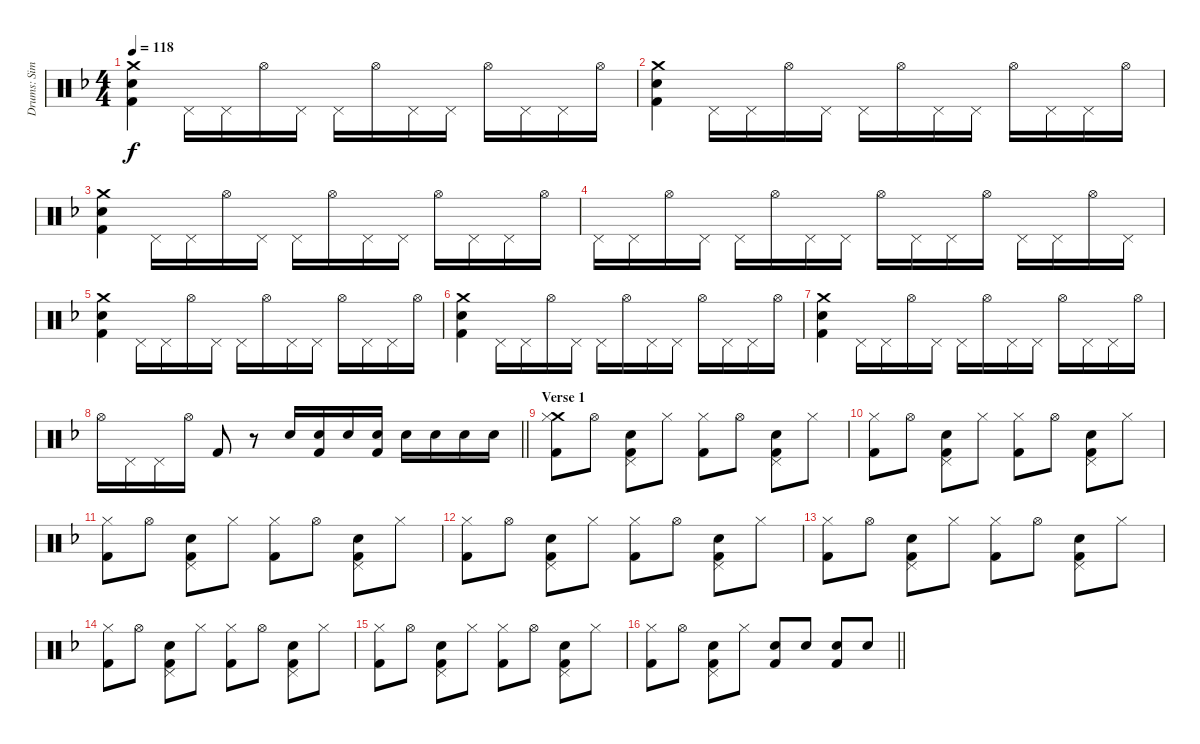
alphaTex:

\track ("Drums: Simon Kirke" "Drums: Sim") {instrument percussion}
\staff {score}
\articulation defaults
\ts (4 4)
\tempo 118
\clef neutral
\ks f
("Crash medium (hit)" "Snare (hit) 2" "Kick (hit) 2").4{dy f} "Pedal Hi-Hat (hit)".16 "Pedal Hi-Hat (hit)".16 "Hi-Hat (open)".16 "Pedal Hi-Hat (hit)".16 "Pedal Hi-Hat (hit)".16 "Hi-Hat (open)".16 "Pedal Hi-Hat (hit)".16 "Pedal Hi-Hat (hit)".16 "Hi-Hat (open)".16 "Pedal Hi-Hat (hit)".16 "Pedal Hi-Hat (hit)".16 "Hi-Hat (open)".16 |
("Crash medium (hit)" "Snare (hit) 2" "Kick (hit) 2").4 "Pedal Hi-Hat (hit)".16 "Pedal Hi-Hat (hit)".16 "Hi-Hat (open)".16 "Pedal Hi-Hat (hit)".16 "Pedal Hi-Hat (hit)".16 "Hi-Hat (open)".16 "Pedal Hi-Hat (hit)".16 "Pedal Hi-Hat (hit)".16 "Hi-Hat (open)".16 "Pedal Hi-Hat (hit)".16 "Pedal Hi-Hat (hit)".16 "Hi-Hat (open)".16 |
("Crash medium (hit)" "Snare (hit) 2" "Kick (hit) 2").4 "Pedal Hi-Hat (hit)".16 "Pedal Hi-Hat (hit)".16 "Hi-Hat (open)".16 "Pedal Hi-Hat (hit)".16 "Pedal Hi-Hat (hit)".16 "Hi-Hat (open)".16 "Pedal Hi-Hat (hit)".16 "Pedal Hi-Hat (hit)".16 "Hi-Hat (open)".16 "Pedal Hi-Hat (hit)".16 "Pedal Hi-Hat (hit)".16 "Hi-Hat (open)".16 |
"Pedal Hi-Hat (hit)".16 "Pedal Hi-Hat (hit)".16 "Hi-Hat (open)".16 "Pedal Hi-Hat (hit)".16 "Pedal Hi-Hat (hit)".16 "Hi-Hat (open)".16 "Pedal Hi-Hat (hit)".16 "Pedal Hi-Hat (hit)".16 "Hi-Hat (open)".16 "Pedal Hi-Hat (hit)".16 "Pedal Hi-Hat (hit)".16 "Hi-Hat (open)".16 "Pedal Hi-Hat (hit)".16 "Pedal Hi-Hat (hit)".16 "Hi-Hat (open)".16 "Pedal Hi-Hat (hit)".16 |
("Crash medium (hit)" "Snare (hit) 2" "Kick (hit) 2").4 "Pedal Hi-Hat (hit)".16 "Pedal Hi-Hat (hit)".16 "Hi-Hat (open)".16 "Pedal Hi-Hat (hit)".16 "Pedal Hi-Hat (hit)".16 "Hi-Hat (open)".16 "Pedal Hi-Hat (hit)".16 "Pedal Hi-Hat (hit)".16 "Hi-Hat (open)".16 "Pedal Hi-Hat (hit)".16 "Pedal Hi-Hat (hit)".16 "Hi-Hat (open)".16 |
("Crash medium (hit)" "Snare (hit) 2" "Kick (hit) 2").4 "Pedal Hi-Hat (hit)".16 "Pedal Hi-Hat (hit)".16 "Hi-Hat (open)".16 "Pedal Hi-Hat (hit)".16 "Pedal Hi-Hat (hit)".16 "Hi-Hat (open)".16 "Pedal Hi-Hat (hit)".16 "Pedal Hi-Hat (hit)".16 "Hi-Hat (open)".16 "Pedal Hi-Hat (hit)".16 "Pedal Hi-Hat (hit)".16 "Hi-Hat (open)".16 |
("Crash medium (hit)" "Snare (hit) 2" "Kick (hit) 2").4 "Pedal Hi-Hat (hit)".16 "Pedal Hi-Hat (hit)".16 "Hi-Hat (open)".16 "Pedal Hi-Hat (hit)".16 "Pedal Hi-Hat (hit)".16 "Hi-Hat (open)".16 "Pedal Hi-Hat (hit)".16 "Pedal Hi-Hat (hit)".16 "Hi-Hat (open)".16 "Pedal Hi-Hat (hit)".16 "Pedal Hi-Hat (hit)".16 "Hi-Hat (open)".16 |
\barLineRight lightlight "Hi-Hat (open)".16 "Pedal Hi-Hat (hit)".16 "Pedal Hi-Hat (hit)".16 "Hi-Hat (open)".16 "Kick (hit) 2".8
r.8 "Snare (hit) 2".16 ("Snare (hit) 2" "Kick (hit) 2").16 "Snare (hit) 2".16 ("Snare (hit) 2" "Kick (hit) 2").16 "Snare (hit) 2".16 "Snare (hit) 2".16 "Snare (hit) 2".16 "Snare (hit) 2".16 |
\section ("" "Verse 1")
("Crash medium (hit)" "Hi-Hat (closed)" "Kick (hit) 2").8 "Hi-Hat (open)".8 ("Pedal Hi-Hat (hit)" "Snare (hit) 2" "Kick (hit) 2").8 "Hi-Hat (closed)".8 ("Hi-Hat (closed)" "Kick (hit) 2").8 "Hi-Hat (open)".8 ("Pedal Hi-Hat (hit)" "Snare (hit) 2" "Kick (hit) 2").8 "Hi-Hat (closed)".8 |
("Hi-Hat (closed)" "Kick (hit) 2").8 "Hi-Hat (open)".8 ("Pedal Hi-Hat (hit)" "Snare (hit) 2" "Kick (hit) 2").8 "Hi-Hat (closed)".8 ("Hi-Hat (closed)" "Kick (hit) 2").8 "Hi-Hat (open)".8 ("Pedal Hi-Hat (hit)" "Snare (hit) 2" "Kick (hit) 2").8 "Hi-Hat (closed)".8 |
("Hi-Hat (closed)" "Kick (hit) 2").8 "Hi-Hat (open)".8 ("Pedal Hi-Hat (hit)" "Snare (hit) 2" "Kick (hit) 2").8 "Hi-Hat (closed)".8 ("Hi-Hat (closed)" "Kick (hit) 2").8 "Hi-Hat (open)".8 ("Pedal Hi-Hat (hit)" "Snare (hit) 2" "Kick (hit) 2").8 "Hi-Hat (closed)".8 |
("Hi-Hat (closed)" "Kick (hit) 2").8 "Hi-Hat (open)".8 ("Pedal Hi-Hat (hit)" "Snare (hit) 2" "Kick (hit) 2").8 "Hi-Hat (closed)".8 ("Hi-Hat (closed)" "Kick (hit) 2").8 "Hi-Hat (open)".8 ("Pedal Hi-Hat (hit)" "Snare (hit) 2" "Kick (hit) 2").8 "Hi-Hat (closed)".8 |
("Hi-Hat (closed)" "Kick (hit) 2").8 "Hi-Hat (open)".8 ("Pedal Hi-Hat (hit)" "Snare (hit) 2" "Kick (hit) 2").8 "Hi-Hat (closed)".8 ("Hi-Hat (closed)" "Kick (hit) 2").8 "Hi-Hat (open)".8 ("Pedal Hi-Hat (hit)" "Snare (hit) 2" "Kick (hit) 2").8 "Hi-Hat (closed)".8 |
("Hi-Hat (closed)" "Kick (hit) 2").8 "Hi-Hat (open)".8 ("Pedal Hi-Hat (hit)" "Snare (hit) 2" "Kick (hit) 2").8 "Hi-Hat (closed)".8 ("Hi-Hat (closed)" "Kick (hit) 2").8 "Hi-Hat (open)".8 ("Pedal Hi-Hat (hit)" "Snare (hit) 2" "Kick (hit) 2").8 "Hi-Hat (closed)".8 |
("Hi-Hat (closed)" "Kick (hit) 2").8 "Hi-Hat (open)".8 ("Pedal Hi-Hat (hit)" "Snare (hit) 2" "Kick (hit) 2").8 "Hi-Hat (closed)".8 ("Hi-Hat (closed)" "Kick (hit) 2").8 "Hi-Hat (open)".8 ("Pedal Hi-Hat (hit)" "Snare (hit) 2" "Kick (hit) 2").8 "Hi-Hat (closed)".8 |
\barLineRight lightlight
("Hi-Hat (closed)" "Kick (hit) 2").8 "Hi-Hat (open)".8 ("Pedal Hi-Hat (hit)" "Snare (hit) 2" "Kick (hit) 2").8 "Hi-Hat (closed)".8 ("Snare (hit) 2" "Kick (hit) 2").8 "Snare (hit) 2".8 ("Snare (hit) 2" "Kick (hit) 2").8 "Snare (hit) 2".8
